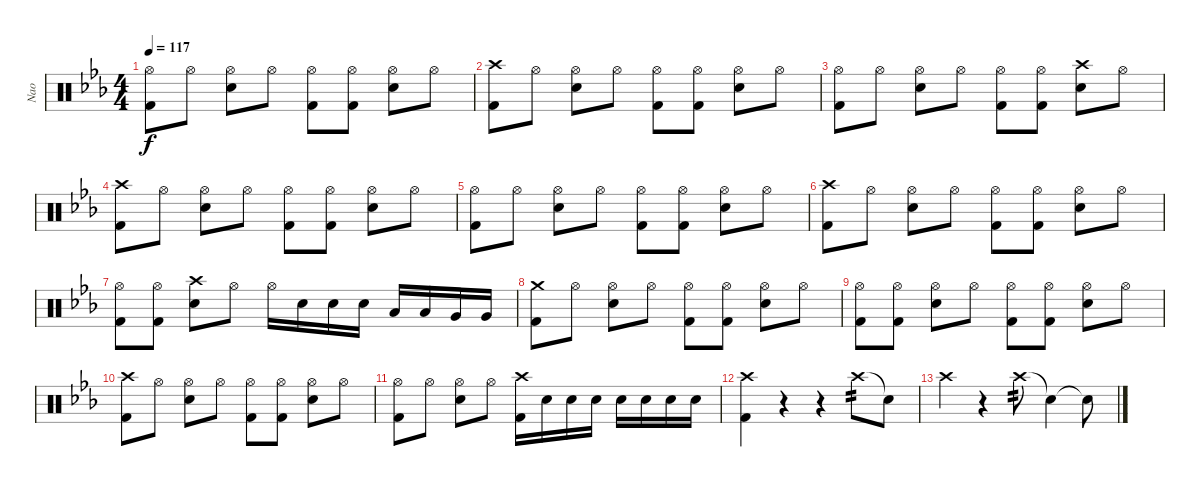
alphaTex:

\track ("Nao" "Nao") {instrument percussion}
\staff {score}
\articulation defaults
\ts (4 4)
\tempo 117
\clef neutral
\ks eb
("Hi-Hat (open)" "Kick (hit) 2").8{dy f} "Hi-Hat (open)".8 ("Hi-Hat (open)" "Snare (hit) 2").8 "Hi-Hat (open)".8 ("Hi-Hat (open)" "Kick (hit) 2").8 ("Hi-Hat (open)" "Kick (hit) 2").8 ("Hi-Hat (open)" "Snare (hit) 2").8 "Hi-Hat (open)".8 |
("Crash high (hit)" "Kick (hit) 2").8 "Hi-Hat (open)".8 ("Hi-Hat (open)" "Snare (hit) 2").8 "Hi-Hat (open)".8 ("Hi-Hat (open)" "Kick (hit) 2").8 ("Hi-Hat (open)" "Kick (hit) 2").8 ("Hi-Hat (open)" "Snare (hit) 2").8 "Hi-Hat (open)".8 |
("Hi-Hat (open)" "Kick (hit) 2").8 "Hi-Hat (open)".8 ("Hi-Hat (open)" "Snare (hit) 2").8 "Hi-Hat (open)".8 ("Hi-Hat (open)" "Kick (hit) 2").8 ("Hi-Hat (open)" "Kick (hit) 2").8 ("Crash high (hit)" "Snare (hit) 2").8 "Hi-Hat (open)".8 |
("Crash high (hit)" "Kick (hit) 2").8 "Hi-Hat (open)".8 ("Hi-Hat (open)" "Snare (hit) 2").8 "Hi-Hat (open)".8 ("Hi-Hat (open)" "Kick (hit) 2").8 ("Hi-Hat (open)" "Kick (hit) 2").8 ("Hi-Hat (open)" "Snare (hit) 2").8 "Hi-Hat (open)".8 |
("Hi-Hat (open)" "Kick (hit) 2").8 "Hi-Hat (open)".8 ("Hi-Hat (open)" "Snare (hit) 2").8 "Hi-Hat (open)".8 ("Hi-Hat (open)" "Kick (hit) 2").8 ("Hi-Hat (open)" "Kick (hit) 2").8 ("Hi-Hat (open)" "Snare (hit) 2").8 "Hi-Hat (open)".8 |
("Crash high (hit)" "Kick (hit) 2").8 "Hi-Hat (open)".8 ("Hi-Hat (open)" "Snare (hit) 2").8 "Hi-Hat (open)".8 ("Hi-Hat (open)" "Kick (hit) 2").8 ("Hi-Hat (open)" "Kick (hit) 2").8 ("Hi-Hat (open)" "Snare (hit) 2").8 "Hi-Hat (open)".8 |
("Hi-Hat (open)" "Kick (hit) 2").8 ("Hi-Hat (open)" "Kick (hit) 2").8 ("Crash high (hit)" "Snare (hit) 2").8 "Hi-Hat (open)".8 "Hi-Hat (open)".16 "Snare (hit) 2".16 "Snare (hit) 2".16 "Snare (hit) 2".16 "Low Tom (hit)".16 "Low Tom (hit)".16 "Very Low Tom (hit)".16 "Very Low Tom (hit)".16 |
("Crash medium (hit)" "Kick (hit) 2").8 "Hi-Hat (open)".8 ("Hi-Hat (open)" "Snare (hit) 2").8 "Hi-Hat (open)".8 ("Hi-Hat (open)" "Kick (hit) 2").8 ("Hi-Hat (open)" "Kick (hit) 2").8 ("Hi-Hat (open)" "Snare (hit) 2").8 "Hi-Hat (open)".8 |
("Hi-Hat (open)" "Kick (hit) 2").8 ("Hi-Hat (open)" "Kick (hit) 2").8 ("Hi-Hat (open)" "Snare (hit) 2").8 "Hi-Hat (open)".8 ("Hi-Hat (open)" "Kick (hit) 2").8 ("Hi-Hat (open)" "Kick (hit) 2").8 ("Hi-Hat (open)" "Snare (hit) 2").8 "Hi-Hat (open)".8 |
("Crash high (hit)" "Kick (hit) 2").8 "Hi-Hat (open)".8 ("Hi-Hat (open)" "Snare (hit) 2").8 "Hi-Hat (open)".8 ("Hi-Hat (open)" "Kick (hit) 2").8 ("Hi-Hat (open)" "Kick (hit) 2").8 ("Hi-Hat (open)" "Snare (hit) 2").8 "Hi-Hat (open)".8 |
("Hi-Hat (open)" "Kick (hit) 2").8 "Hi-Hat (open)".8 ("Hi-Hat (open)" "Snare (hit) 2").8 "Hi-Hat (open)".8 ("Crash high (hit)" "Kick (hit) 2").16 "Snare (hit) 2".16 "Snare (hit) 2".16 "Snare (hit) 2".16 "Snare (hit) 2".16 "Snare (hit) 2".16 "Snare (hit) 2".16 "Snare (hit) 2".16 |
("Crash high (hit)" "Kick (hit) 2").4 r.4 r.4 "Crash high (hit)".8{tp 2 volume 5} "Snare (hit)"{t}.8{volume 9} |
"Crash high (hit)".4 r.4 "Crash high (hit)".8{tp 2 volume 5} "Snare (hit)"{t}.4{volume 9} "Snare (hit)"{t}.8
